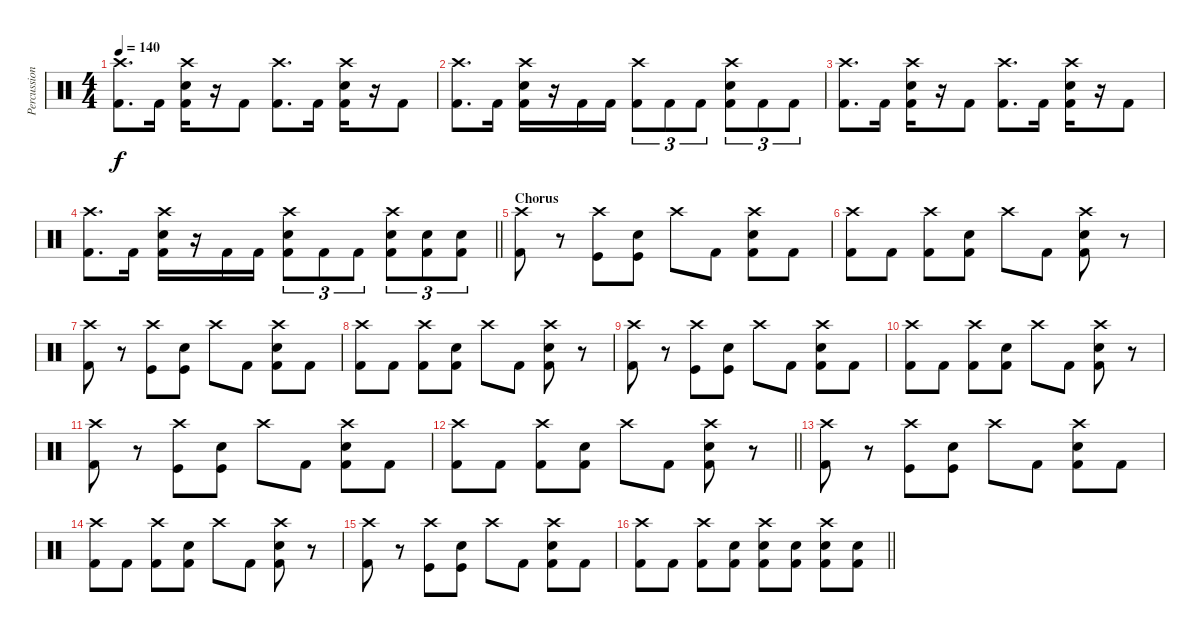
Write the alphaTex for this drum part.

\track ("Percussion" "Percussion") {instrument percussion}
\staff {score}
\articulation defaults
\ts (4 4)
\tempo 140
\clef neutral
\ks c
("Crash high (hit)" "Kick (hit) 2").8{d dy f} "Kick (hit) 2".16 ("Crash high (hit)" "Electric Snare (hit)" "Kick (hit) 2").16 r.16 "Kick (hit) 2".8 ("Crash high (hit)" "Kick (hit) 2").8{d} "Kick (hit) 2".16 ("Crash high (hit)" "Electric Snare (hit)" "Kick (hit) 2").16 r.16 "Kick (hit) 2".8 |
("Crash high (hit)" "Kick (hit) 2").8{d} "Kick (hit) 2".16 ("Crash high (hit)" "Electric Snare (hit)" "Kick (hit) 2").16 r.16 "Kick (hit) 2".16 "Kick (hit) 2".16 ("Crash high (hit)" "Kick (hit) 2").8{tu (3 2)} "Kick (hit) 2".8{tu (3 2)} "Kick (hit) 2".8{tu (3 2)} ("Crash high (hit)" "Electric Snare (hit)" "Kick (hit) 2").8{tu (3 2)} "Kick (hit) 2".8{tu (3 2)} "Kick (hit) 2".8{tu (3 2)} |
("Crash high (hit)" "Kick (hit) 2").8{d} "Kick (hit) 2".16 ("Crash high (hit)" "Electric Snare (hit)" "Kick (hit) 2").16 r.16 "Kick (hit) 2".8 ("Crash high (hit)" "Kick (hit) 2").8{d} "Kick (hit) 2".16 ("Crash high (hit)" "Electric Snare (hit)" "Kick (hit) 2").16 r.16 "Kick (hit) 2".8 |
\barLineRight lightlight
("Crash high (hit)" "Kick (hit) 2").8{d} "Kick (hit) 2".16 ("Crash high (hit)" "Electric Snare (hit)" "Kick (hit) 2").16 r.16 "Kick (hit) 2".16 "Kick (hit) 2".16 ("Crash high (hit)" "Electric Snare (hit)" "Kick (hit) 2").8{tu (3 2)} "Kick (hit) 2".8{tu (3 2)} "Kick (hit) 2".8{tu (3 2)} ("Crash high (hit)" "Electric Snare (hit)" "Kick (hit) 2").8{tu (3 2)} ("Electric Snare (hit)" "Kick (hit) 2").8{tu (3 2)} ("Electric Snare (hit)" "Kick (hit) 2").8{tu (3 2)} |
\section ("" "Chorus")
("Crash high (hit)" "Kick (hit) 2").8 r.8 ("Crash high (hit)" "Kick (hit)").8 ("Electric Snare (hit)" "Kick (hit)").8 "Crash high (hit)".8 "Kick (hit) 2".8 ("Crash high (hit)" "Electric Snare (hit)" "Kick (hit) 2").8 "Kick (hit) 2".8 |
("Crash high (hit)" "Kick (hit) 2").8 "Kick (hit) 2".8 ("Crash high (hit)" "Kick (hit) 2").8 ("Electric Snare (hit)" "Kick (hit) 2").8 "Crash high (hit)".8 "Kick (hit) 2".8 ("Crash high (hit)" "Electric Snare (hit)" "Kick (hit) 2").8 r.8 |
("Crash high (hit)" "Kick (hit) 2").8 r.8 ("Crash high (hit)" "Kick (hit)").8 ("Electric Snare (hit)" "Kick (hit)").8 "Crash high (hit)".8 "Kick (hit) 2".8 ("Crash high (hit)" "Electric Snare (hit)" "Kick (hit) 2").8 "Kick (hit) 2".8 |
("Crash high (hit)" "Kick (hit) 2").8 "Kick (hit) 2".8 ("Crash high (hit)" "Kick (hit) 2").8 ("Electric Snare (hit)" "Kick (hit) 2").8 "Crash high (hit)".8 "Kick (hit) 2".8 ("Crash high (hit)" "Electric Snare (hit)" "Kick (hit) 2").8 r.8 |
("Crash high (hit)" "Kick (hit) 2").8 r.8 ("Crash high (hit)" "Kick (hit)").8 ("Electric Snare (hit)" "Kick (hit)").8 "Crash high (hit)".8 "Kick (hit) 2".8 ("Crash high (hit)" "Electric Snare (hit)" "Kick (hit) 2").8 "Kick (hit) 2".8 |
("Crash high (hit)" "Kick (hit) 2").8 "Kick (hit) 2".8 ("Crash high (hit)" "Kick (hit) 2").8 ("Electric Snare (hit)" "Kick (hit) 2").8 "Crash high (hit)".8 "Kick (hit) 2".8 ("Crash high (hit)" "Electric Snare (hit)" "Kick (hit) 2").8 r.8 |
("Crash high (hit)" "Kick (hit) 2").8 r.8 ("Crash high (hit)" "Kick (hit)").8 ("Electric Snare (hit)" "Kick (hit)").8 "Crash high (hit)".8 "Kick (hit) 2".8 ("Crash high (hit)" "Electric Snare (hit)" "Kick (hit) 2").8 "Kick (hit) 2".8 |
\barLineRight lightlight
("Crash high (hit)" "Kick (hit) 2").8 "Kick (hit) 2".8 ("Crash high (hit)" "Kick (hit) 2").8 ("Electric Snare (hit)" "Kick (hit) 2").8 "Crash high (hit)".8 "Kick (hit) 2".8 ("Crash high (hit)" "Electric Snare (hit)" "Kick (hit) 2").8 r.8 |
("Crash high (hit)" "Kick (hit) 2").8 r.8 ("Crash high (hit)" "Kick (hit)").8 ("Electric Snare (hit)" "Kick (hit)").8 "Crash high (hit)".8 "Kick (hit) 2".8 ("Crash high (hit)" "Electric Snare (hit)" "Kick (hit) 2").8 "Kick (hit) 2".8 |
("Crash high (hit)" "Kick (hit) 2").8 "Kick (hit) 2".8 ("Crash high (hit)" "Kick (hit) 2").8 ("Electric Snare (hit)" "Kick (hit) 2").8 "Crash high (hit)".8 "Kick (hit) 2".8 ("Crash high (hit)" "Electric Snare (hit)" "Kick (hit) 2").8 r.8 |
("Crash high (hit)" "Kick (hit) 2").8 r.8 ("Crash high (hit)" "Kick (hit)").8 ("Electric Snare (hit)" "Kick (hit)").8 "Crash high (hit)".8 "Kick (hit) 2".8 ("Crash high (hit)" "Electric Snare (hit)" "Kick (hit) 2").8 "Kick (hit) 2".8 |
\barLineRight lightlight
("Crash high (hit)" "Kick (hit) 2").8 "Kick (hit) 2".8 ("Crash high (hit)" "Kick (hit) 2").8 ("Electric Snare (hit)" "Kick (hit) 2").8 ("Crash high (hit)" "Electric Snare (hit)" "Kick (hit) 2").8 ("Electric Snare (hit)" "Kick (hit) 2").8 ("Crash high (hit)" "Electric Snare (hit)" "Kick (hit) 2").8 ("Electric Snare (hit)" "Kick (hit) 2").8
